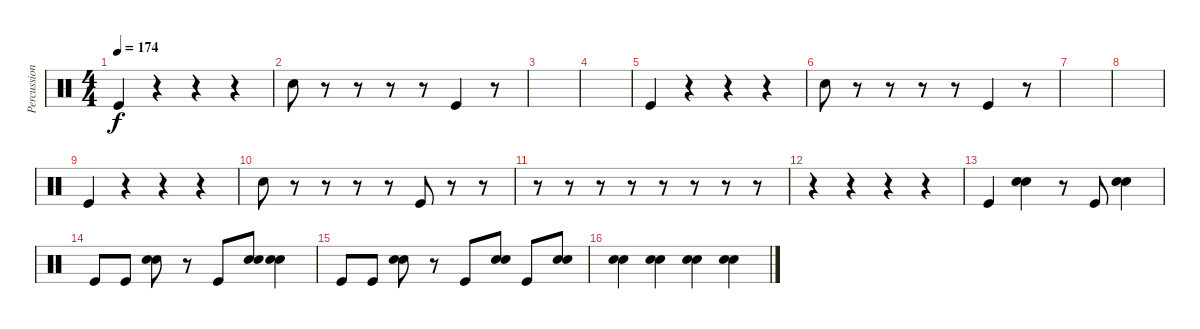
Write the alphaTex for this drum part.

\track ("Percussion" "Percussion") {instrument percussion}
\staff {score}
\articulation defaults
\ts (4 4)
\tempo 174
\clef neutral
\ks c "Kick (hit)".4{dy f}
r.4 r.4 r.4 |
"Snare (hit) 2".8 r.8 r.8 r.8 r.8 "Kick (hit)".4 r.8 |
|
|
"Kick (hit)".4 r.4 r.4 r.4 |
"Snare (hit) 2".8 r.8 r.8 r.8 r.8 "Kick (hit)".4 r.8 |
|
|
"Kick (hit)".4 r.4 r.4 r.4 |
"Snare (hit) 2".8 r.8 r.8 r.8 r.8 "Kick (hit)".8 r.8 r.8 |
r.8 r.8 r.8 r.8 r.8 r.8 r.8 r.8 |
r.4 r.4 r.4 r.4 |
"Kick (hit)".4 ("Snare (hit) 2" "Snare (hit) 2").4 r.8 "Kick (hit)".8 ("Snare (hit) 2" "Snare (hit) 2").4 |
"Kick (hit)".8 "Kick (hit)".8 ("Snare (hit) 2" "Snare (hit) 2").8 r.8 "Kick (hit)".8 ("Snare (hit) 2" "Snare (hit) 2").8 ("Snare (hit) 2" "Snare (hit) 2").4 |
"Kick (hit)".8 "Kick (hit)".8 ("Snare (hit) 2" "Snare (hit) 2").8 r.8 "Kick (hit)".8 ("Snare (hit) 2" "Snare (hit) 2").8 "Kick (hit)".8 ("Snare (hit) 2" "Snare (hit) 2").8 |
("Snare (hit) 2" "Snare (hit) 2").4 ("Snare (hit) 2" "Snare (hit) 2").4 ("Snare (hit) 2" "Snare (hit) 2").4 ("Snare (hit) 2" "Snare (hit) 2").4
